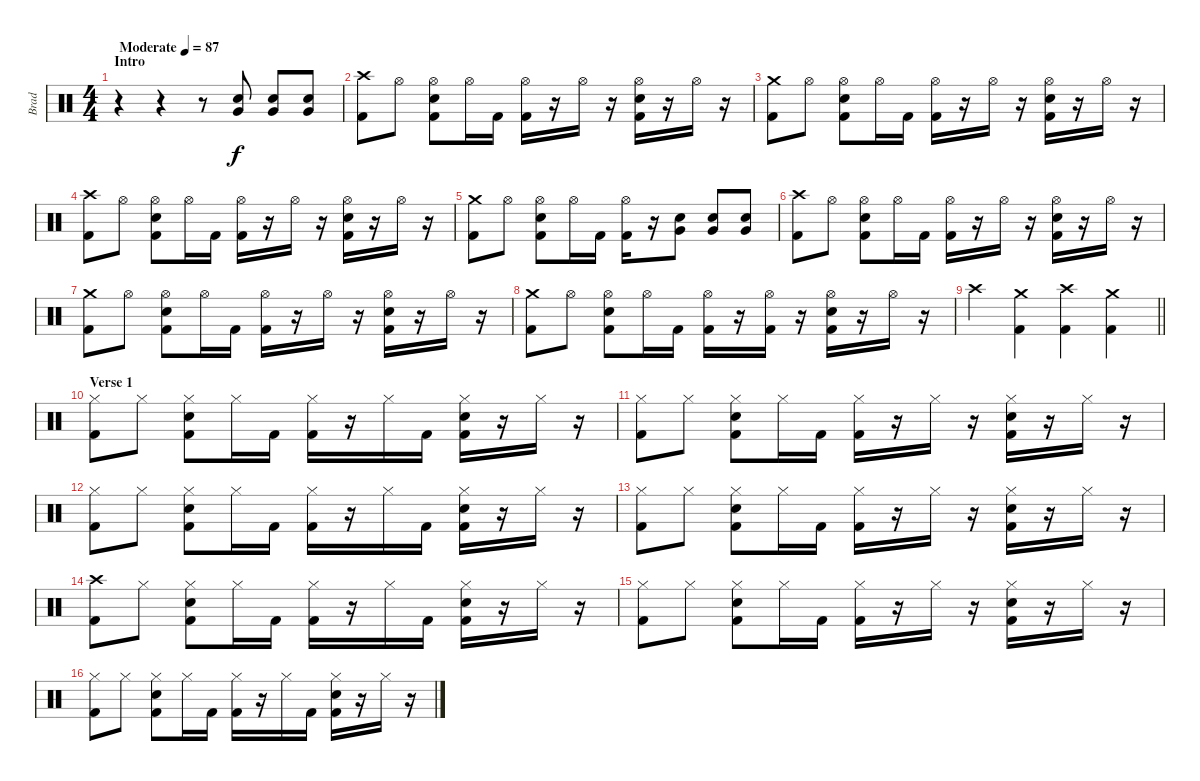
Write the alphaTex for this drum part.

\track ("Brad" "Brad") {instrument percussion}
\staff {score}
\articulation defaults
\ts (4 4)
\section ("" "Intro")
\tempo (87 "Moderate")
\clef neutral
\ks c
r.4{dy f} r.4 r.8 ("Very Low Tom (hit)" "Electric Snare (hit)").8 ("Very Low Tom (hit)" "Electric Snare (hit)").8 ("Very Low Tom (hit)" "Electric Snare (hit)").8 |
("Crash high (hit)" "Kick (hit) 2").8 "Hi-Hat (open)".8 ("Hi-Hat (open)" "Electric Snare (hit)" "Kick (hit) 2").8 "Hi-Hat (open)".16 "Kick (hit) 2".16 ("Hi-Hat (open)" "Kick (hit) 2").16 r.16 "Hi-Hat (open)".16 r.16 ("Hi-Hat (open)" "Electric Snare (hit)" "Kick (hit) 2").16 r.16 "Hi-Hat (open)".16 r.16 |
("Crash medium (hit)" "Kick (hit) 2").8 "Hi-Hat (open)".8 ("Hi-Hat (open)" "Electric Snare (hit)" "Kick (hit) 2").8 "Hi-Hat (open)".16 "Kick (hit) 2".16 ("Hi-Hat (open)" "Kick (hit) 2").16 r.16 "Hi-Hat (open)".16 r.16 ("Hi-Hat (open)" "Electric Snare (hit)" "Kick (hit) 2").16 r.16 "Hi-Hat (open)".16 r.16 |
("Crash high (hit)" "Kick (hit) 2").8 "Hi-Hat (open)".8 ("Hi-Hat (open)" "Electric Snare (hit)" "Kick (hit) 2").8 "Hi-Hat (open)".16 "Kick (hit) 2".16 ("Hi-Hat (open)" "Kick (hit) 2").16 r.16 "Hi-Hat (open)".16 r.16 ("Hi-Hat (open)" "Electric Snare (hit)" "Kick (hit) 2").16 r.16 "Hi-Hat (open)".16 r.16 |
("Crash medium (hit)" "Kick (hit) 2").8 "Hi-Hat (open)".8 ("Hi-Hat (open)" "Electric Snare (hit)" "Kick (hit) 2").8 "Hi-Hat (open)".16 "Kick (hit) 2".16 ("Hi-Hat (open)" "Kick (hit) 2").16 r.16 ("Very Low Tom (hit)" "Electric Snare (hit)").8 ("Very Low Tom (hit)" "Electric Snare (hit)").8 ("Very Low Tom (hit)" "Electric Snare (hit)").8 |
("Crash high (hit)" "Kick (hit) 2").8 "Hi-Hat (open)".8 ("Hi-Hat (open)" "Electric Snare (hit)" "Kick (hit) 2").8 "Hi-Hat (open)".16 "Kick (hit) 2".16 ("Hi-Hat (open)" "Kick (hit) 2").16 r.16 "Hi-Hat (open)".16 r.16 ("Hi-Hat (open)" "Electric Snare (hit)" "Kick (hit) 2").16 r.16 "Hi-Hat (open)".16 r.16 |
("Crash medium (hit)" "Kick (hit) 2").8 "Hi-Hat (open)".8 ("Hi-Hat (open)" "Electric Snare (hit)" "Kick (hit) 2").8 "Hi-Hat (open)".16 "Kick (hit) 2".16 ("Hi-Hat (open)" "Kick (hit) 2").16 r.16 "Hi-Hat (open)".16 r.16 ("Hi-Hat (open)" "Electric Snare (hit)" "Kick (hit) 2").16 r.16 "Hi-Hat (open)".16 r.16 |
("Crash medium (hit)" "Kick (hit) 2").8 "Hi-Hat (open)".8 ("Hi-Hat (open)" "Electric Snare (hit)" "Kick (hit) 2").8 "Hi-Hat (open)".16 "Kick (hit) 2".16 ("Hi-Hat (open)" "Kick (hit) 2").16 r.16 ("Hi-Hat (open)" "Kick (hit) 2").16 r.16 ("Hi-Hat (open)" "Electric Snare (hit)" "Kick (hit) 2").16 r.16 "Hi-Hat (open)".16 r.16 |
\barLineRight lightlight "Crash high (hit)".4
("Crash medium (hit)" "Kick (hit) 2").4 ("Crash high (hit)" "Kick (hit) 2").4 ("Crash medium (hit)" "Kick (hit) 2").4 |
\section ("" "Verse 1")
("Hi-Hat (closed)" "Kick (hit) 2").8 "Hi-Hat (closed)".8 ("Hi-Hat (closed)" "Electric Snare (hit)" "Kick (hit) 2").8 "Hi-Hat (closed)".16 "Kick (hit) 2".16 ("Hi-Hat (closed)" "Kick (hit) 2").16 r.16 "Hi-Hat (closed)".16 "Kick (hit) 2".16 ("Hi-Hat (closed)" "Electric Snare (hit)" "Kick (hit) 2").16 r.16 "Hi-Hat (closed)".16 r.16 |
("Hi-Hat (closed)" "Kick (hit) 2").8 "Hi-Hat (closed)".8 ("Hi-Hat (closed)" "Electric Snare (hit)" "Kick (hit) 2").8 "Hi-Hat (closed)".16 "Kick (hit) 2".16 ("Hi-Hat (closed)" "Kick (hit) 2").16 r.16 "Hi-Hat (closed)".16 r.16 ("Hi-Hat (closed)" "Electric Snare (hit)" "Kick (hit) 2").16 r.16 "Hi-Hat (closed)".16 r.16 |
("Hi-Hat (closed)" "Kick (hit) 2").8 "Hi-Hat (closed)".8 ("Hi-Hat (closed)" "Electric Snare (hit)" "Kick (hit) 2").8 "Hi-Hat (closed)".16 "Kick (hit) 2".16 ("Hi-Hat (closed)" "Kick (hit) 2").16 r.16 "Hi-Hat (closed)".16 "Kick (hit) 2".16 ("Hi-Hat (closed)" "Electric Snare (hit)" "Kick (hit) 2").16 r.16 "Hi-Hat (closed)".16 r.16 |
("Hi-Hat (closed)" "Kick (hit) 2").8 "Hi-Hat (closed)".8 ("Hi-Hat (closed)" "Electric Snare (hit)" "Kick (hit) 2").8 "Hi-Hat (closed)".16 "Kick (hit) 2".16 ("Hi-Hat (closed)" "Kick (hit) 2").16 r.16 "Hi-Hat (closed)".16 r.16 ("Hi-Hat (closed)" "Electric Snare (hit)" "Kick (hit) 2").16 r.16 "Hi-Hat (closed)".16 r.16 |
("Crash high (hit)" "Kick (hit) 2").8 "Hi-Hat (closed)".8 ("Hi-Hat (closed)" "Electric Snare (hit)" "Kick (hit) 2").8 "Hi-Hat (closed)".16 "Kick (hit) 2".16 ("Hi-Hat (closed)" "Kick (hit) 2").16 r.16 "Hi-Hat (closed)".16 "Kick (hit) 2".16 ("Hi-Hat (closed)" "Electric Snare (hit)" "Kick (hit) 2").16 r.16 "Hi-Hat (closed)".16 r.16 |
("Hi-Hat (closed)" "Kick (hit) 2").8 "Hi-Hat (closed)".8 ("Hi-Hat (closed)" "Electric Snare (hit)" "Kick (hit) 2").8 "Hi-Hat (closed)".16 "Kick (hit) 2".16 ("Hi-Hat (closed)" "Kick (hit) 2").16 r.16 "Hi-Hat (closed)".16 r.16 ("Hi-Hat (closed)" "Electric Snare (hit)" "Kick (hit) 2").16 r.16 "Hi-Hat (closed)".16 r.16 |
("Hi-Hat (closed)" "Kick (hit) 2").8 "Hi-Hat (closed)".8 ("Hi-Hat (closed)" "Electric Snare (hit)" "Kick (hit) 2").8 "Hi-Hat (closed)".16 "Kick (hit) 2".16 ("Hi-Hat (closed)" "Kick (hit) 2").16 r.16 "Hi-Hat (closed)".16 "Kick (hit) 2".16 ("Hi-Hat (closed)" "Electric Snare (hit)" "Kick (hit) 2").16 r.16 "Hi-Hat (closed)".16 r.16
